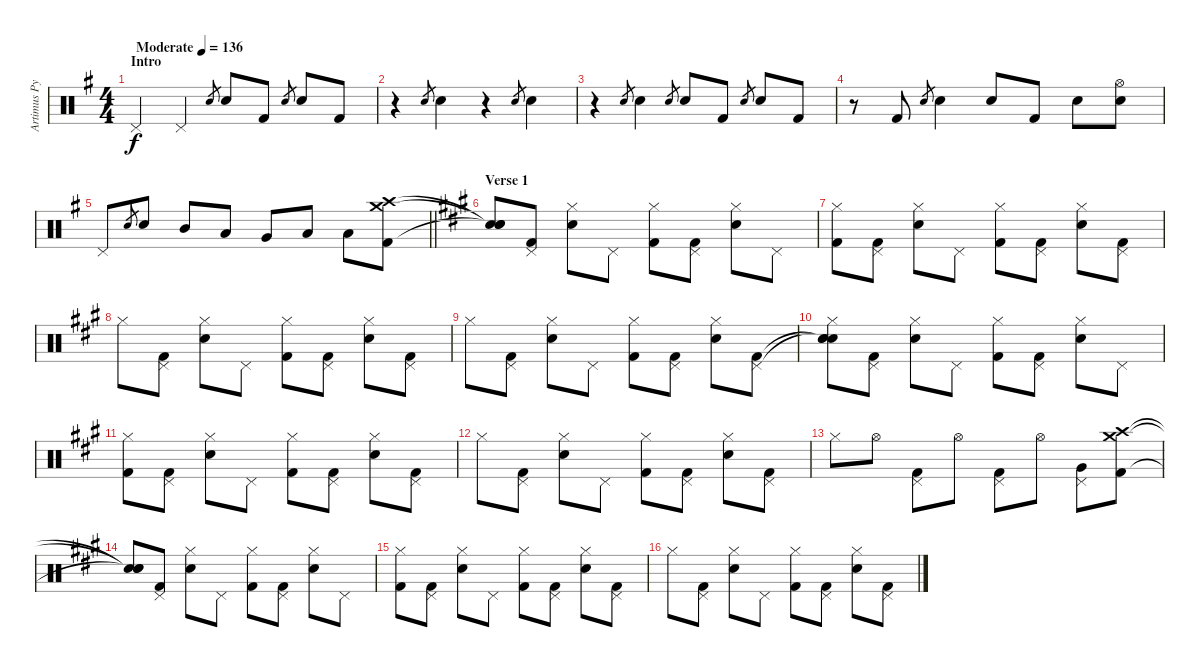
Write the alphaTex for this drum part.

\track ("Artimus Pyle - Drums" "Artimus Py") {instrument percussion}
\staff {score}
\articulation defaults
\ts (4 4)
\section ("" "Intro")
\tempo (136 "Moderate")
\clef neutral
\ks g "Pedal Hi-Hat (hit)".4{dy f} "Pedal Hi-Hat (hit)".4 "Snare (hit) 2".8{gr} "Snare (hit) 2".8 "Kick (hit) 2".8 "Snare (hit) 2".8{gr} "Snare (hit) 2".8 "Kick (hit) 2".8
|
r.4 "Snare (hit) 2".8{gr} "Snare (hit) 2".4 r.4 "Snare (hit) 2".8{gr} "Snare (hit) 2".4 |
r.4 "Snare (hit) 2".8{gr} "Snare (hit) 2".4 "Snare (hit) 2".8{gr} "Snare (hit) 2".8 "Kick (hit) 2".8 "Snare (hit) 2".8{gr} "Snare (hit) 2".8 "Kick (hit) 2".8 |
r.8 "Kick (hit) 2".8 "Snare (hit) 2".8{gr} "Snare (hit) 2".4 "Snare (hit) 2".8 "Kick (hit) 2".8 "Snare (hit) 2".8 ("Snare (hit) 2" "Hi-Hat (open)").8 |
\barLineRight lightlight "Pedal Hi-Hat (hit)".8 "Snare (hit) 2".8{gr} "Snare (hit) 2".8 "Mid Tom (hit)".8 "Low Tom (hit)".8 "Very Low Tom (hit)".8 "Low Floor Tom (hit)".8 "Low Floor Tom (hit)".8
("Crash medium (hit)" "Crash high (hit)" "Kick (hit) 2").8 |
\section ("" "Verse 1")
\ks a
("Snare (hit)"{t} "Snare (hit)"{t} "Snare (hit)"{t}).8 ("Pedal Hi-Hat (hit)" "Kick (hit) 2").8 ("Snare (hit) 2" "Hi-Hat (closed)").8 "Pedal Hi-Hat (hit)".8 ("Hi-Hat (closed)" "Kick (hit) 2").8 ("Pedal Hi-Hat (hit)" "Kick (hit) 2").8 ("Snare (hit) 2" "Hi-Hat (closed)").8 "Pedal Hi-Hat (hit)".8 |
("Hi-Hat (closed)" "Kick (hit) 2").8 ("Pedal Hi-Hat (hit)" "Kick (hit) 2").8 ("Snare (hit) 2" "Hi-Hat (closed)").8 "Pedal Hi-Hat (hit)".8 ("Hi-Hat (closed)" "Kick (hit) 2").8 ("Pedal Hi-Hat (hit)" "Kick (hit) 2").8 ("Snare (hit) 2" "Hi-Hat (closed)").8 ("Pedal Hi-Hat (hit)" "Kick (hit) 2").8 |
"Hi-Hat (closed)".8 ("Pedal Hi-Hat (hit)" "Kick (hit) 2").8 ("Snare (hit) 2" "Hi-Hat (closed)").8 "Pedal Hi-Hat (hit)".8 ("Hi-Hat (closed)" "Kick (hit) 2").8 ("Pedal Hi-Hat (hit)" "Kick (hit) 2").8 ("Snare (hit) 2" "Hi-Hat (closed)").8 ("Pedal Hi-Hat (hit)" "Kick (hit) 2").8 |
"Hi-Hat (closed)".8 ("Pedal Hi-Hat (hit)" "Kick (hit) 2").8 ("Snare (hit) 2" "Hi-Hat (closed)").8 "Pedal Hi-Hat (hit)".8 ("Hi-Hat (closed)" "Kick (hit) 2").8 ("Pedal Hi-Hat (hit)" "Kick (hit) 2").8 ("Snare (hit) 2" "Hi-Hat (closed)").8 ("Pedal Hi-Hat (hit)" "Kick (hit) 2").8 |
("Snare (hit)"{t} "Snare (hit)"{t} "Hi-Hat (closed)" "Snare (hit)").8 ("Pedal Hi-Hat (hit)" "Kick (hit) 2").8 ("Snare (hit) 2" "Hi-Hat (closed)").8 "Pedal Hi-Hat (hit)".8 ("Hi-Hat (closed)" "Kick (hit) 2").8 ("Pedal Hi-Hat (hit)" "Kick (hit) 2").8 ("Snare (hit) 2" "Hi-Hat (closed)").8 "Pedal Hi-Hat (hit)".8 |
("Hi-Hat (closed)" "Kick (hit) 2").8 ("Pedal Hi-Hat (hit)" "Kick (hit) 2").8 ("Snare (hit) 2" "Hi-Hat (closed)").8 "Pedal Hi-Hat (hit)".8 ("Hi-Hat (closed)" "Kick (hit) 2").8 ("Pedal Hi-Hat (hit)" "Kick (hit) 2").8 ("Snare (hit) 2" "Hi-Hat (closed)").8 ("Pedal Hi-Hat (hit)" "Kick (hit) 2").8 |
"Hi-Hat (closed)".8 ("Pedal Hi-Hat (hit)" "Kick (hit) 2").8 ("Snare (hit) 2" "Hi-Hat (closed)").8 "Pedal Hi-Hat (hit)".8 ("Hi-Hat (closed)" "Kick (hit) 2").8 ("Pedal Hi-Hat (hit)" "Kick (hit) 2").8 ("Snare (hit) 2" "Hi-Hat (closed)").8 ("Pedal Hi-Hat (hit)" "Kick (hit) 2").8 |
"Hi-Hat (closed)".8 "Hi-Hat (open)".8 ("Pedal Hi-Hat (hit)" "Kick (hit) 2").8 "Hi-Hat (open)".8 ("Pedal Hi-Hat (hit)" "Kick (hit) 2").8 "Hi-Hat (open)".8 ("Pedal Hi-Hat (hit)" "Very Low Tom (hit)").8 ("Crash medium (hit)" "Crash high (hit)" "Kick (hit) 2").8 |
("Snare (hit)"{t} "Snare (hit)"{t} "Snare (hit)"{t}).8 ("Pedal Hi-Hat (hit)" "Kick (hit) 2").8 ("Snare (hit) 2" "Hi-Hat (closed)").8 "Pedal Hi-Hat (hit)".8 ("Hi-Hat (closed)" "Kick (hit) 2").8 ("Pedal Hi-Hat (hit)" "Kick (hit) 2").8 ("Snare (hit) 2" "Hi-Hat (closed)").8 "Pedal Hi-Hat (hit)".8 |
("Hi-Hat (closed)" "Kick (hit) 2").8 ("Pedal Hi-Hat (hit)" "Kick (hit) 2").8 ("Snare (hit) 2" "Hi-Hat (closed)").8 "Pedal Hi-Hat (hit)".8 ("Hi-Hat (closed)" "Kick (hit) 2").8 ("Pedal Hi-Hat (hit)" "Kick (hit) 2").8 ("Snare (hit) 2" "Hi-Hat (closed)").8 ("Pedal Hi-Hat (hit)" "Kick (hit) 2").8 |
"Hi-Hat (closed)".8 ("Pedal Hi-Hat (hit)" "Kick (hit) 2").8 ("Snare (hit) 2" "Hi-Hat (closed)").8 "Pedal Hi-Hat (hit)".8 ("Hi-Hat (closed)" "Kick (hit) 2").8 ("Pedal Hi-Hat (hit)" "Kick (hit) 2").8 ("Snare (hit) 2" "Hi-Hat (closed)").8 ("Pedal Hi-Hat (hit)" "Kick (hit) 2").8
